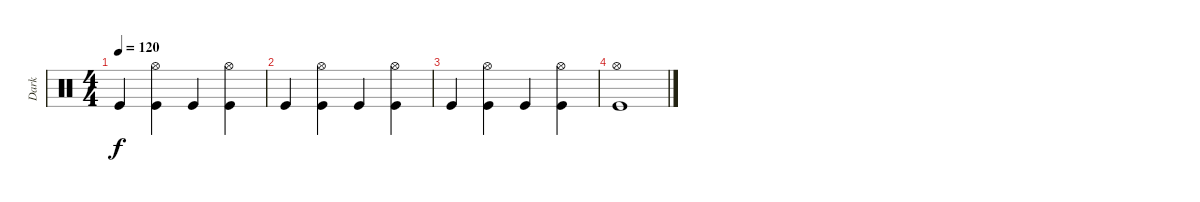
\track ("Dark" "Dark") {instrument percussion}
\staff {score}
\articulation defaults
\ts (4 4)
\tempo 120
\clef neutral
\ks c "Kick (hit)".4{dy f}
("Hi-Hat (open)" "Kick (hit)").4 "Kick (hit)".4 ("Hi-Hat (open)" "Kick (hit)").4 |
"Kick (hit)".4 ("Hi-Hat (open)" "Kick (hit)").4 "Kick (hit)".4 ("Hi-Hat (open)" "Kick (hit)").4 |
"Kick (hit)".4 ("Hi-Hat (open)" "Kick (hit)").4 "Kick (hit)".4 ("Hi-Hat (open)" "Kick (hit)").4 |
("Hi-Hat (open)" "Kick (hit)").1
